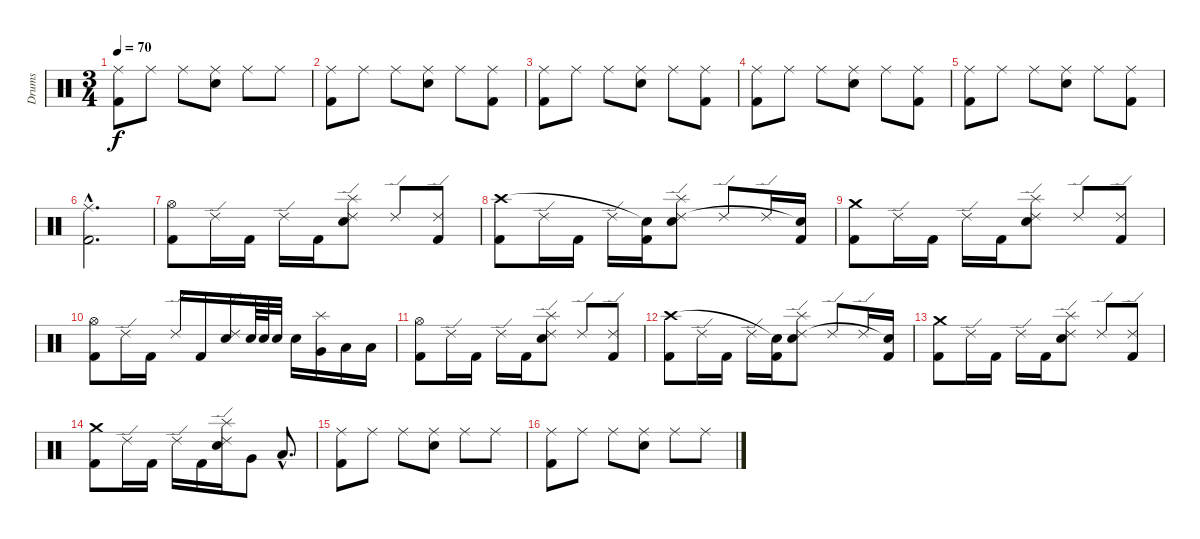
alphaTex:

\track ("Drums" "Drums") {instrument percussion}
\staff {score}
\articulation defaults
\ts (3 4)
\tempo 70
\clef neutral
\ks c
("Kick (hit) 2" "Ride (middle)").8{dy f} "Ride (middle)".8 "Ride (middle)".8 ("Snare (hit) 2" "Ride (middle)").8 "Ride (middle)".8 "Ride (middle)".8 |
("Kick (hit) 2" "Ride (middle)").8 "Ride (middle)".8 "Ride (middle)".8 ("Snare (hit) 2" "Ride (middle)").8 "Ride (middle)".8 ("Kick (hit) 2" "Ride (middle)").8 |
("Kick (hit) 2" "Ride (middle)").8 "Ride (middle)".8 "Ride (middle)".8 ("Snare (hit) 2" "Ride (middle)").8 "Ride (middle)".8 ("Kick (hit) 2" "Ride (middle)").8 |
("Kick (hit) 2" "Ride (middle)").8 "Ride (middle)".8 "Ride (middle)".8 ("Snare (hit) 2" "Ride (middle)").8 "Ride (middle)".8 ("Kick (hit) 2" "Ride (middle)").8 |
("Kick (hit) 2" "Ride (middle)").8 "Ride (middle)".8 "Ride (middle)".8 ("Snare (hit) 2" "Ride (middle)").8 "Ride (middle)".8 ("Kick (hit) 2" "Ride (middle)").8 |
("Kick (hit) 2"{hac} "Ride (middle)"{hac}).2{d} |
("Kick (hit) 2" "Hi-Hat (open)").8 "Ride (edge) 2".16 "Kick (hit) 2".16 "Ride (edge) 2".16 "Kick (hit) 2".16 ("Snare (hit) 2" "Ride (edge) 2" "Splash (hit)").8 "Ride (edge) 2".8 ("Kick (hit) 2" "Ride (edge) 2").8 |
("Kick (hit) 2" "Crash high (hit)").8 "Ride (edge) 2".16 "Kick (hit) 2".16 "Ride (edge) 2".16 ("Kick (hit) 2" "Snare (hit)"{t}).16 ("Snare (hit) 2" "Ride (edge) 2" "Splash (hit)").8 "Ride (edge) 2".8 "Ride (edge) 2".16 ("Kick (hit) 2" "Snare (hit)"{t}).16 |
("Kick (hit) 2" "Crash medium (hit)").8 "Ride (edge) 2".16 "Kick (hit) 2".16 "Ride (edge) 2".16 "Kick (hit) 2".16 ("Snare (hit) 2" "Ride (edge) 2" "Splash (hit)").8 "Ride (edge) 2".8 ("Kick (hit) 2" "Ride (edge) 2").8 |
("Kick (hit) 2" "Hi-Hat (open)").8 "Ride (edge) 2".16 "Kick (hit) 2".16 "Ride (edge) 2".16 "Kick (hit) 2".16 ("Snare (hit) 2" "Ride (edge) 2").16 "Snare (hit) 2".64 "Snare (hit) 2".64 "Snare (hit) 2".32 "Snare (hit) 2".16 ("Very Low Tom (hit)" "Splash (hit)").16 "Low Tom (hit)".16 "Low Floor Tom (hit)".16 |
("Kick (hit) 2" "Hi-Hat (open)").8 "Ride (edge) 2".16 "Kick (hit) 2".16 "Ride (edge) 2".16 "Kick (hit) 2".16 ("Snare (hit) 2" "Ride (edge) 2" "Splash (hit)").8 "Ride (edge) 2".8 ("Kick (hit) 2" "Ride (edge) 2").8 |
("Kick (hit) 2" "Crash high (hit)").8 "Ride (edge) 2".16 "Kick (hit) 2".16 "Ride (edge) 2".16 ("Kick (hit) 2" "Snare (hit)"{t}).16 ("Snare (hit) 2" "Ride (edge) 2" "Splash (hit)").8 "Ride (edge) 2".8 "Ride (edge) 2".16 ("Kick (hit) 2" "Snare (hit)"{t}).16 |
("Kick (hit) 2" "Crash medium (hit)").8 "Ride (edge) 2".16 "Kick (hit) 2".16 "Ride (edge) 2".16 "Kick (hit) 2".16 ("Snare (hit) 2" "Ride (edge) 2" "Splash (hit)").8 "Ride (edge) 2".8 ("Kick (hit) 2" "Ride (edge) 2").8 |
("Kick (hit) 2" "Crash medium (hit)").8 "Ride (edge) 2".16 "Kick (hit) 2".16 "Ride (edge) 2".16 "Kick (hit) 2".16 ("Snare (hit) 2" "Ride (edge) 2" "Splash (hit)").16 "Very Low Tom (hit)".8 "Low Floor Tom (hit)"{hac}.8{d} |
("Kick (hit) 2" "Ride (middle)").8 "Ride (middle)".8 "Ride (middle)".8 ("Snare (hit) 2" "Ride (middle)").8 "Ride (middle)".8 "Ride (middle)".8 |
("Kick (hit) 2" "Ride (middle)").8 "Ride (middle)".8 "Ride (middle)".8 ("Snare (hit) 2" "Ride (middle)").8 "Ride (middle)".8 "Ride (middle)".8
